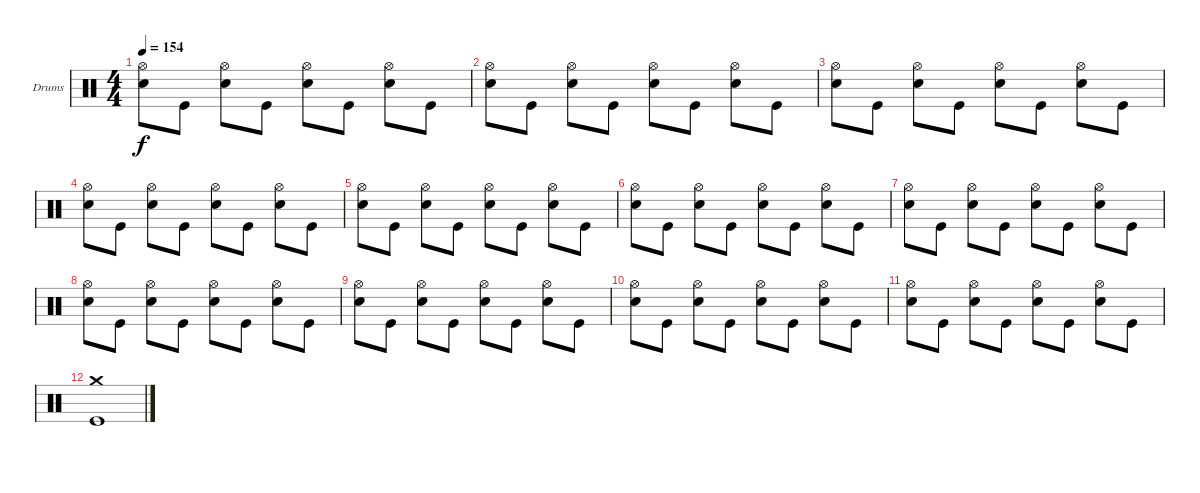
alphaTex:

\defaultSystemsLayout 4
\bracketExtendMode groupsimilarinstruments
\firstSystemTrackNameOrientation horizontal
\otherSystemsTrackNameOrientation horizontal
\track ("Drumkit" "Drums") {instrument percussion}
\staff {score}
\articulation defaults
\ts (4 4)
\tempo 154
\clef neutral
\ks c
("Hi-Hat (open)" "Snare (hit) 2").8{dy f} "Kick (hit)".8 ("Hi-Hat (open)" "Snare (hit) 2").8 "Kick (hit)".8 ("Hi-Hat (open)" "Snare (hit) 2").8 "Kick (hit)".8 ("Hi-Hat (open)" "Snare (hit) 2").8 "Kick (hit)".8 |
("Hi-Hat (open)" "Snare (hit) 2").8 "Kick (hit)".8 ("Hi-Hat (open)" "Snare (hit) 2").8 "Kick (hit)".8 ("Hi-Hat (open)" "Snare (hit) 2").8 "Kick (hit)".8 ("Hi-Hat (open)" "Snare (hit) 2").8 "Kick (hit)".8 |
("Hi-Hat (open)" "Snare (hit) 2").8 "Kick (hit)".8 ("Hi-Hat (open)" "Snare (hit) 2").8 "Kick (hit)".8 ("Hi-Hat (open)" "Snare (hit) 2").8 "Kick (hit)".8 ("Hi-Hat (open)" "Snare (hit) 2").8 "Kick (hit)".8 |
("Hi-Hat (open)" "Snare (hit) 2").8 "Kick (hit)".8 ("Hi-Hat (open)" "Snare (hit) 2").8 "Kick (hit)".8 ("Hi-Hat (open)" "Snare (hit) 2").8 "Kick (hit)".8 ("Hi-Hat (open)" "Snare (hit) 2").8 "Kick (hit)".8 |
("Hi-Hat (open)" "Snare (hit) 2").8 "Kick (hit)".8 ("Hi-Hat (open)" "Snare (hit) 2").8 "Kick (hit)".8 ("Hi-Hat (open)" "Snare (hit) 2").8 "Kick (hit)".8 ("Hi-Hat (open)" "Snare (hit) 2").8 "Kick (hit)".8 |
("Hi-Hat (open)" "Snare (hit) 2").8 "Kick (hit)".8 ("Hi-Hat (open)" "Snare (hit) 2").8 "Kick (hit)".8 ("Hi-Hat (open)" "Snare (hit) 2").8 "Kick (hit)".8 ("Hi-Hat (open)" "Snare (hit) 2").8 "Kick (hit)".8 |
("Hi-Hat (open)" "Snare (hit) 2").8 "Kick (hit)".8 ("Hi-Hat (open)" "Snare (hit) 2").8 "Kick (hit)".8 ("Hi-Hat (open)" "Snare (hit) 2").8 "Kick (hit)".8 ("Hi-Hat (open)" "Snare (hit) 2").8 "Kick (hit)".8 |
("Hi-Hat (open)" "Snare (hit) 2").8 "Kick (hit)".8 ("Hi-Hat (open)" "Snare (hit) 2").8 "Kick (hit)".8 ("Hi-Hat (open)" "Snare (hit) 2").8 "Kick (hit)".8 ("Hi-Hat (open)" "Snare (hit) 2").8 "Kick (hit)".8 |
("Hi-Hat (open)" "Snare (hit) 2").8 "Kick (hit)".8 ("Hi-Hat (open)" "Snare (hit) 2").8 "Kick (hit)".8 ("Hi-Hat (open)" "Snare (hit) 2").8 "Kick (hit)".8 ("Hi-Hat (open)" "Snare (hit) 2").8 "Kick (hit)".8 |
("Hi-Hat (open)" "Snare (hit) 2").8 "Kick (hit)".8 ("Hi-Hat (open)" "Snare (hit) 2").8 "Kick (hit)".8 ("Hi-Hat (open)" "Snare (hit) 2").8 "Kick (hit)".8 ("Hi-Hat (open)" "Snare (hit) 2").8 "Kick (hit)".8 |
("Hi-Hat (open)" "Snare (hit) 2").8 "Kick (hit)".8 ("Hi-Hat (open)" "Snare (hit) 2").8 "Kick (hit)".8 ("Hi-Hat (open)" "Snare (hit) 2").8 "Kick (hit)".8 ("Hi-Hat (open)" "Snare (hit) 2").8 "Kick (hit)".8 |
("Crash medium (hit)" "Kick (hit)").1
